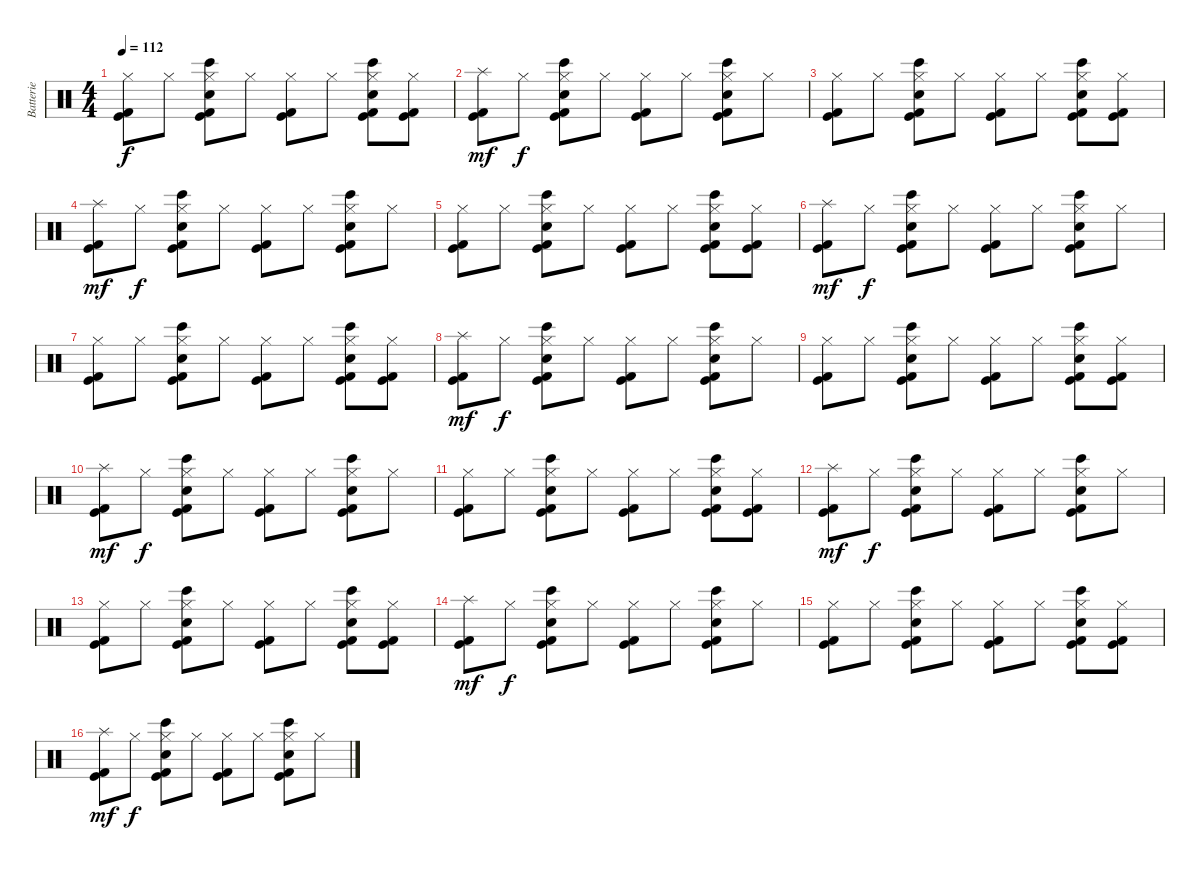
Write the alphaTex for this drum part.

\track ("Batterie" "Batterie") {instrument percussion}
\staff {score}
\articulation defaults
\ts (4 4)
\tempo 112
\clef neutral
\ks c
("Hi-Hat (closed)" "Kick (hit)" "Kick (hit) 2").8{dy f} "Hi-Hat (closed)".8 ("Hi-Hat (closed)" "Electric Snare (hit)" "Bongo High (hit)" "Kick (hit)" "Kick (hit) 2").8 "Hi-Hat (closed)".8 ("Hi-Hat (closed)" "Kick (hit)" "Kick (hit) 2").8 "Hi-Hat (closed)".8 ("Hi-Hat (closed)" "Electric Snare (hit)" "Bongo High (hit)" "Kick (hit)" "Kick (hit) 2").8 ("Hi-Hat (closed)" "Kick (hit)" "Kick (hit) 2").8 |
("Splash (hit)" "Kick (hit)" "Kick (hit) 2").8{dy mf} "Hi-Hat (closed)".8{dy f} ("Hi-Hat (closed)" "Electric Snare (hit)" "Bongo High (hit)" "Kick (hit)" "Kick (hit) 2").8 "Hi-Hat (closed)".8 ("Hi-Hat (closed)" "Kick (hit)" "Kick (hit) 2").8 "Hi-Hat (closed)".8 ("Hi-Hat (closed)" "Electric Snare (hit)" "Bongo High (hit)" "Kick (hit)" "Kick (hit) 2").8 "Hi-Hat (closed)".8 |
("Hi-Hat (closed)" "Kick (hit)" "Kick (hit) 2").8 "Hi-Hat (closed)".8 ("Hi-Hat (closed)" "Electric Snare (hit)" "Bongo High (hit)" "Kick (hit)" "Kick (hit) 2").8 "Hi-Hat (closed)".8 ("Hi-Hat (closed)" "Kick (hit)" "Kick (hit) 2").8 "Hi-Hat (closed)".8 ("Hi-Hat (closed)" "Electric Snare (hit)" "Bongo High (hit)" "Kick (hit)" "Kick (hit) 2").8 ("Hi-Hat (closed)" "Kick (hit)" "Kick (hit) 2").8 |
("Splash (hit)" "Kick (hit)" "Kick (hit) 2").8{dy mf} "Hi-Hat (closed)".8{dy f} ("Hi-Hat (closed)" "Electric Snare (hit)" "Bongo High (hit)" "Kick (hit)" "Kick (hit) 2").8 "Hi-Hat (closed)".8 ("Hi-Hat (closed)" "Kick (hit)" "Kick (hit) 2").8 "Hi-Hat (closed)".8 ("Hi-Hat (closed)" "Electric Snare (hit)" "Bongo High (hit)" "Kick (hit)" "Kick (hit) 2").8 "Hi-Hat (closed)".8 |
("Hi-Hat (closed)" "Kick (hit)" "Kick (hit) 2").8 "Hi-Hat (closed)".8 ("Hi-Hat (closed)" "Electric Snare (hit)" "Bongo High (hit)" "Kick (hit)" "Kick (hit) 2").8 "Hi-Hat (closed)".8 ("Hi-Hat (closed)" "Kick (hit)" "Kick (hit) 2").8 "Hi-Hat (closed)".8 ("Hi-Hat (closed)" "Electric Snare (hit)" "Bongo High (hit)" "Kick (hit)" "Kick (hit) 2").8 ("Hi-Hat (closed)" "Kick (hit)" "Kick (hit) 2").8 |
("Splash (hit)" "Kick (hit)" "Kick (hit) 2").8{dy mf} "Hi-Hat (closed)".8{dy f} ("Hi-Hat (closed)" "Electric Snare (hit)" "Bongo High (hit)" "Kick (hit)" "Kick (hit) 2").8 "Hi-Hat (closed)".8 ("Hi-Hat (closed)" "Kick (hit)" "Kick (hit) 2").8 "Hi-Hat (closed)".8 ("Hi-Hat (closed)" "Electric Snare (hit)" "Bongo High (hit)" "Kick (hit)" "Kick (hit) 2").8 "Hi-Hat (closed)".8 |
("Hi-Hat (closed)" "Kick (hit)" "Kick (hit) 2").8 "Hi-Hat (closed)".8 ("Hi-Hat (closed)" "Electric Snare (hit)" "Bongo High (hit)" "Kick (hit)" "Kick (hit) 2").8 "Hi-Hat (closed)".8 ("Hi-Hat (closed)" "Kick (hit)" "Kick (hit) 2").8 "Hi-Hat (closed)".8 ("Hi-Hat (closed)" "Electric Snare (hit)" "Bongo High (hit)" "Kick (hit)" "Kick (hit) 2").8 ("Hi-Hat (closed)" "Kick (hit)" "Kick (hit) 2").8 |
("Splash (hit)" "Kick (hit)" "Kick (hit) 2").8{dy mf} "Hi-Hat (closed)".8{dy f} ("Hi-Hat (closed)" "Electric Snare (hit)" "Bongo High (hit)" "Kick (hit)" "Kick (hit) 2").8 "Hi-Hat (closed)".8 ("Hi-Hat (closed)" "Kick (hit)" "Kick (hit) 2").8 "Hi-Hat (closed)".8 ("Hi-Hat (closed)" "Electric Snare (hit)" "Bongo High (hit)" "Kick (hit)" "Kick (hit) 2").8 "Hi-Hat (closed)".8 |
("Hi-Hat (closed)" "Kick (hit)" "Kick (hit) 2").8 "Hi-Hat (closed)".8 ("Hi-Hat (closed)" "Electric Snare (hit)" "Bongo High (hit)" "Kick (hit)" "Kick (hit) 2").8 "Hi-Hat (closed)".8 ("Hi-Hat (closed)" "Kick (hit)" "Kick (hit) 2").8 "Hi-Hat (closed)".8 ("Hi-Hat (closed)" "Electric Snare (hit)" "Bongo High (hit)" "Kick (hit)" "Kick (hit) 2").8 ("Hi-Hat (closed)" "Kick (hit)" "Kick (hit) 2").8 |
("Splash (hit)" "Kick (hit)" "Kick (hit) 2").8{dy mf} "Hi-Hat (closed)".8{dy f} ("Hi-Hat (closed)" "Electric Snare (hit)" "Bongo High (hit)" "Kick (hit)" "Kick (hit) 2").8 "Hi-Hat (closed)".8 ("Hi-Hat (closed)" "Kick (hit)" "Kick (hit) 2").8 "Hi-Hat (closed)".8 ("Hi-Hat (closed)" "Electric Snare (hit)" "Bongo High (hit)" "Kick (hit)" "Kick (hit) 2").8 "Hi-Hat (closed)".8 |
("Hi-Hat (closed)" "Kick (hit)" "Kick (hit) 2").8 "Hi-Hat (closed)".8 ("Hi-Hat (closed)" "Electric Snare (hit)" "Bongo High (hit)" "Kick (hit)" "Kick (hit) 2").8 "Hi-Hat (closed)".8 ("Hi-Hat (closed)" "Kick (hit)" "Kick (hit) 2").8 "Hi-Hat (closed)".8 ("Hi-Hat (closed)" "Electric Snare (hit)" "Bongo High (hit)" "Kick (hit)" "Kick (hit) 2").8 ("Hi-Hat (closed)" "Kick (hit)" "Kick (hit) 2").8 |
("Splash (hit)" "Kick (hit)" "Kick (hit) 2").8{dy mf} "Hi-Hat (closed)".8{dy f} ("Hi-Hat (closed)" "Electric Snare (hit)" "Bongo High (hit)" "Kick (hit)" "Kick (hit) 2").8 "Hi-Hat (closed)".8 ("Hi-Hat (closed)" "Kick (hit)" "Kick (hit) 2").8 "Hi-Hat (closed)".8 ("Hi-Hat (closed)" "Electric Snare (hit)" "Bongo High (hit)" "Kick (hit)" "Kick (hit) 2").8 "Hi-Hat (closed)".8 |
("Hi-Hat (closed)" "Kick (hit)" "Kick (hit) 2").8 "Hi-Hat (closed)".8 ("Hi-Hat (closed)" "Electric Snare (hit)" "Bongo High (hit)" "Kick (hit)" "Kick (hit) 2").8 "Hi-Hat (closed)".8 ("Hi-Hat (closed)" "Kick (hit)" "Kick (hit) 2").8 "Hi-Hat (closed)".8 ("Hi-Hat (closed)" "Electric Snare (hit)" "Bongo High (hit)" "Kick (hit)" "Kick (hit) 2").8 ("Hi-Hat (closed)" "Kick (hit)" "Kick (hit) 2").8 |
("Splash (hit)" "Kick (hit)" "Kick (hit) 2").8{dy mf} "Hi-Hat (closed)".8{dy f} ("Hi-Hat (closed)" "Electric Snare (hit)" "Bongo High (hit)" "Kick (hit)" "Kick (hit) 2").8 "Hi-Hat (closed)".8 ("Hi-Hat (closed)" "Kick (hit)" "Kick (hit) 2").8 "Hi-Hat (closed)".8 ("Hi-Hat (closed)" "Electric Snare (hit)" "Bongo High (hit)" "Kick (hit)" "Kick (hit) 2").8 "Hi-Hat (closed)".8 |
("Hi-Hat (closed)" "Kick (hit)" "Kick (hit) 2").8 "Hi-Hat (closed)".8 ("Hi-Hat (closed)" "Electric Snare (hit)" "Bongo High (hit)" "Kick (hit)" "Kick (hit) 2").8 "Hi-Hat (closed)".8 ("Hi-Hat (closed)" "Kick (hit)" "Kick (hit) 2").8 "Hi-Hat (closed)".8 ("Hi-Hat (closed)" "Electric Snare (hit)" "Bongo High (hit)" "Kick (hit)" "Kick (hit) 2").8 ("Hi-Hat (closed)" "Kick (hit)" "Kick (hit) 2").8 |
("Splash (hit)" "Kick (hit)" "Kick (hit) 2").8{dy mf} "Hi-Hat (closed)".8{dy f} ("Hi-Hat (closed)" "Electric Snare (hit)" "Bongo High (hit)" "Kick (hit)" "Kick (hit) 2").8 "Hi-Hat (closed)".8 ("Hi-Hat (closed)" "Kick (hit)" "Kick (hit) 2").8 "Hi-Hat (closed)".8 ("Hi-Hat (closed)" "Electric Snare (hit)" "Bongo High (hit)" "Kick (hit)" "Kick (hit) 2").8 "Hi-Hat (closed)".8
